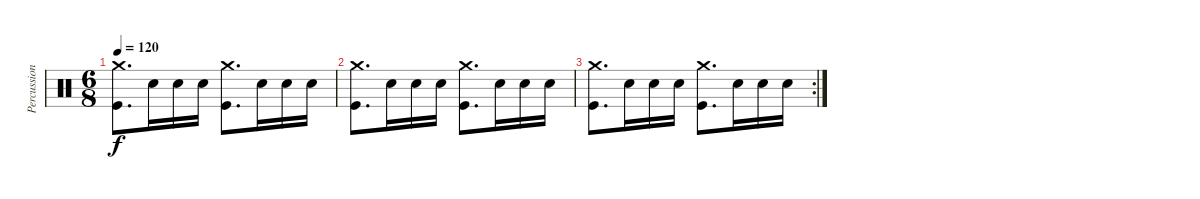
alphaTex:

\track ("Percussion" "Percussion") {instrument percussion}
\staff {score}
\articulation defaults
\ts (6 8)
\tempo 120
\clef neutral
\ks c
("Crash medium (hit)" "Kick (hit)").8{d dy f} "Snare (hit) 2".16 "Snare (hit) 2".16 "Snare (hit) 2".16 ("Crash medium (hit)" "Kick (hit)").8{d} "Snare (hit) 2".16 "Snare (hit) 2".16 "Snare (hit) 2".16 |
("Crash medium (hit)" "Kick (hit)").8{d} "Snare (hit) 2".16 "Snare (hit) 2".16 "Snare (hit) 2".16 ("Crash medium (hit)" "Kick (hit)").8{d} "Snare (hit) 2".16 "Snare (hit) 2".16 "Snare (hit) 2".16 |
\rc 2
("Crash medium (hit)" "Kick (hit)").8{d} "Snare (hit) 2".16 "Snare (hit) 2".16 "Snare (hit) 2".16 ("Crash medium (hit)" "Kick (hit)").8{d} "Snare (hit) 2".16 "Snare (hit) 2".16 "Snare (hit) 2".16
